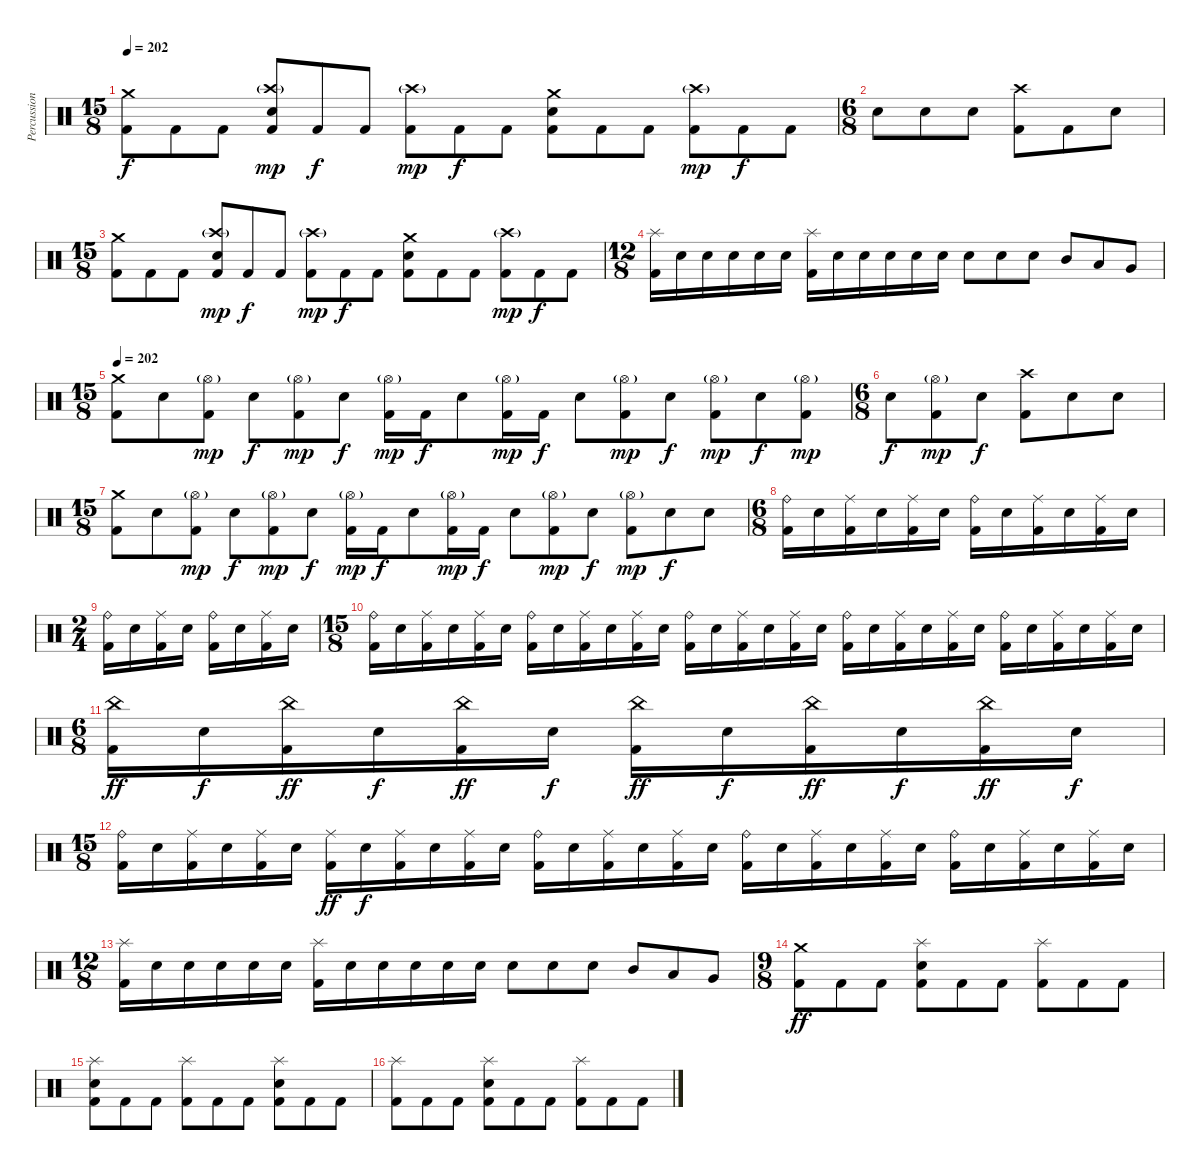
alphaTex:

\track ("Percussion" "Percussion") {instrument percussion}
\staff {score}
\articulation defaults
\ts (15 8)
\tempo 202
\clef neutral
\ks c
("Crash medium (hit)" "Kick (hit) 2").8{dy f} "Kick (hit) 2".8 "Kick (hit) 2".8 ("Crash high (hit)"{g} "Electric Snare (hit)" "Kick (hit) 2").8{dy mp} "Kick (hit) 2".8{dy f} "Kick (hit) 2".8 ("Crash high (hit)"{g} "Kick (hit) 2").8{dy mp} "Kick (hit) 2".8{dy f} "Kick (hit) 2".8 ("Crash medium (hit)" "Electric Snare (hit)" "Kick (hit) 2").8 "Kick (hit) 2".8 "Kick (hit) 2".8 ("Crash high (hit)"{g} "Kick (hit) 2").8{dy mp} "Kick (hit) 2".8{dy f} "Kick (hit) 2".8 |
\ts (6 8)
"Electric Snare (hit)".8 "Electric Snare (hit)".8 "Electric Snare (hit)".8 ("Crash high (hit)" "Kick (hit) 2").8 "Kick (hit) 2".8 "Electric Snare (hit)".8 |
\ts (15 8)
("Crash medium (hit)" "Kick (hit) 2").8 "Kick (hit) 2".8 "Kick (hit) 2".8 ("Crash high (hit)"{g} "Electric Snare (hit)" "Kick (hit) 2").8{dy mp} "Kick (hit) 2".8{dy f} "Kick (hit) 2".8 ("Crash high (hit)"{g} "Kick (hit) 2").8{dy mp} "Kick (hit) 2".8{dy f} "Kick (hit) 2".8 ("Crash medium (hit)" "Electric Snare (hit)" "Kick (hit) 2").8 "Kick (hit) 2".8 "Kick (hit) 2".8 ("Crash high (hit)"{g} "Kick (hit) 2").8{dy mp} "Kick (hit) 2".8{dy f} "Kick (hit) 2".8 |
\ts (12 8)
("Splash (hit)" "Kick (hit) 2").16 "Electric Snare (hit)".16 "Electric Snare (hit)".16 "Electric Snare (hit)".16 "Electric Snare (hit)".16 "Electric Snare (hit)".16 ("Splash (hit)" "Kick (hit) 2").16 "Electric Snare (hit)".16 "Electric Snare (hit)".16 "Electric Snare (hit)".16 "Electric Snare (hit)".16 "Electric Snare (hit)".16 "Electric Snare (hit)".8 "Electric Snare (hit)".8 "Electric Snare (hit)".8 "Mid Tom (hit)".8 "Low Tom (hit)".8 "Very Low Tom (hit)".8 |
\ts (15 8)
\tempo 202
("Crash medium (hit)" "Kick (hit) 2").8 "Electric Snare (hit)".8 ("Hi-Hat (open)"{g} "Kick (hit) 2").8{dy mp} "Electric Snare (hit)".8{dy f} ("Hi-Hat (open)"{g} "Kick (hit) 2").8{dy mp} "Electric Snare (hit)".8{dy f} ("Hi-Hat (open)"{g} "Kick (hit) 2").16{dy mp} "Kick (hit) 2".16{dy f} "Electric Snare (hit)".8 ("Hi-Hat (open)"{g} "Kick (hit) 2").16{dy mp} "Kick (hit) 2".16{dy f} "Electric Snare (hit)".8 ("Hi-Hat (open)"{g} "Kick (hit) 2").8{dy mp} "Electric Snare (hit)".8{dy f} ("Hi-Hat (open)"{g} "Kick (hit) 2").8{dy mp} "Electric Snare (hit)".8{dy f} ("Hi-Hat (open)"{g} "Kick (hit) 2").8{dy mp} |
\ts (6 8)
"Electric Snare (hit)".8{dy f} ("Hi-Hat (open)"{g} "Kick (hit) 2").8{dy mp} "Electric Snare (hit)".8{dy f} ("Crash high (hit)" "Kick (hit) 2").8 "Electric Snare (hit)".8 "Electric Snare (hit)".8 |
\ts (15 8)
("Crash medium (hit)" "Kick (hit) 2").8 "Electric Snare (hit)".8 ("Hi-Hat (open)"{g} "Kick (hit) 2").8{dy mp} "Electric Snare (hit)".8{dy f} ("Hi-Hat (open)"{g} "Kick (hit) 2").8{dy mp} "Electric Snare (hit)".8{dy f} ("Hi-Hat (open)"{g} "Kick (hit) 2").16{dy mp} "Kick (hit) 2".16{dy f} "Electric Snare (hit)".8 ("Hi-Hat (open)"{g} "Kick (hit) 2").16{dy mp} "Kick (hit) 2".16{dy f} "Electric Snare (hit)".8 ("Hi-Hat (open)"{g} "Kick (hit) 2").8{dy mp} "Electric Snare (hit)".8{dy f} ("Hi-Hat (open)"{g} "Kick (hit) 2").8{dy mp} "Electric Snare (hit)".8{dy f} "Electric Snare (hit)".8 |
\ts (6 8)
("Ride (bell)" "Kick (hit) 2").16 "Electric Snare (hit)".16 ("Ride (middle)" "Kick (hit) 2").16 "Electric Snare (hit)".16 ("Ride (middle)" "Kick (hit) 2").16 "Electric Snare (hit)".16 ("Ride (bell)" "Kick (hit) 2").16 "Electric Snare (hit)".16 ("Ride (middle)" "Kick (hit) 2").16 "Electric Snare (hit)".16 ("Ride (middle)" "Kick (hit) 2").16 "Electric Snare (hit)".16 |
\ts (2 4)
("Ride (bell)" "Kick (hit) 2").16 "Electric Snare (hit)".16 ("Ride (middle)" "Kick (hit) 2").16 "Electric Snare (hit)".16 ("Ride (bell)" "Kick (hit) 2").16 "Electric Snare (hit)".16 ("Ride (middle)" "Kick (hit) 2").16 "Electric Snare (hit)".16 |
\ts (15 8)
("Ride (bell)" "Kick (hit) 2").16 "Electric Snare (hit)".16 ("Ride (middle)" "Kick (hit) 2").16 "Electric Snare (hit)".16 ("Ride (middle)" "Kick (hit) 2").16 "Electric Snare (hit)".16 ("Ride (bell)" "Kick (hit) 2").16 "Electric Snare (hit)".16 ("Ride (middle)" "Kick (hit) 2").16 "Electric Snare (hit)".16 ("Ride (middle)" "Kick (hit) 2").16 "Electric Snare (hit)".16 ("Ride (bell)" "Kick (hit) 2").16 "Electric Snare (hit)".16 ("Ride (middle)" "Kick (hit) 2").16 "Electric Snare (hit)".16 ("Ride (middle)" "Kick (hit) 2").16 "Electric Snare (hit)".16 ("Ride (bell)" "Kick (hit) 2").16 "Electric Snare (hit)".16 ("Ride (middle)" "Kick (hit) 2").16 "Electric Snare (hit)".16 ("Ride (middle)" "Kick (hit) 2").16 "Electric Snare (hit)".16 ("Ride (bell)" "Kick (hit) 2").16 "Electric Snare (hit)".16 ("Ride (middle)" "Kick (hit) 2").16 "Electric Snare (hit)".16 ("Ride (middle)" "Kick (hit) 2").16 "Electric Snare (hit)".16 |
\ts (6 8)
("China (hit)" "Kick (hit) 2").16{dy ff} "Electric Snare (hit)".16{dy f} ("China (hit)" "Kick (hit) 2").16{dy ff} "Electric Snare (hit)".16{dy f} ("China (hit)" "Kick (hit) 2").16{dy ff} "Electric Snare (hit)".16{dy f} ("China (hit)" "Kick (hit) 2").16{dy ff} "Electric Snare (hit)".16{dy f} ("China (hit)" "Kick (hit) 2").16{dy ff} "Electric Snare (hit)".16{dy f} ("China (hit)" "Kick (hit) 2").16{dy ff} "Electric Snare (hit)".16{dy f} |
\ts (15 8)
("Ride (bell)" "Kick (hit) 2").16 "Electric Snare (hit)".16 ("Ride (middle)" "Kick (hit) 2").16 "Electric Snare (hit)".16 ("Ride (middle)" "Kick (hit) 2").16 "Electric Snare (hit)".16 ("Ride (middle)" "Kick (hit) 2").16{dy ff} "Electric Snare (hit)".16{dy f} ("Ride (middle)" "Kick (hit) 2").16 "Electric Snare (hit)".16 ("Ride (middle)" "Kick (hit) 2").16 "Electric Snare (hit)".16 ("Ride (bell)" "Kick (hit) 2").16 "Electric Snare (hit)".16 ("Ride (middle)" "Kick (hit) 2").16 "Electric Snare (hit)".16 ("Ride (middle)" "Kick (hit) 2").16 "Electric Snare (hit)".16 ("Ride (bell)" "Kick (hit) 2").16 "Electric Snare (hit)".16 ("Ride (middle)" "Kick (hit) 2").16 "Electric Snare (hit)".16 ("Ride (middle)" "Kick (hit) 2").16 "Electric Snare (hit)".16 ("Ride (bell)" "Kick (hit) 2").16 "Electric Snare (hit)".16 ("Ride (middle)" "Kick (hit) 2").16 "Electric Snare (hit)".16 ("Ride (middle)" "Kick (hit) 2").16 "Electric Snare (hit)".16 |
\ts (12 8)
("Splash (hit)" "Kick (hit) 2").16 "Electric Snare (hit)".16 "Electric Snare (hit)".16 "Electric Snare (hit)".16 "Electric Snare (hit)".16 "Electric Snare (hit)".16 ("Splash (hit)" "Kick (hit) 2").16 "Electric Snare (hit)".16 "Electric Snare (hit)".16 "Electric Snare (hit)".16 "Electric Snare (hit)".16 "Electric Snare (hit)".16 "Electric Snare (hit)".8 "Electric Snare (hit)".8 "Electric Snare (hit)".8 "Mid Tom (hit)".8 "Low Tom (hit)".8 "Very Low Tom (hit)".8 |
\ts (9 8)
("Crash medium (hit)" "Kick (hit) 2").8{dy ff} "Kick (hit) 2".8 "Kick (hit) 2".8 ("Splash (hit)" "Electric Snare (hit)" "Kick (hit) 2").8 "Kick (hit) 2".8 "Kick (hit) 2".8 ("Splash (hit)" "Kick (hit) 2").8 "Kick (hit) 2".8 "Kick (hit) 2".8 |
("Splash (hit)" "Electric Snare (hit)" "Kick (hit) 2").8 "Kick (hit) 2".8 "Kick (hit) 2".8 ("Splash (hit)" "Kick (hit) 2").8 "Kick (hit) 2".8 "Kick (hit) 2".8 ("Splash (hit)" "Electric Snare (hit)" "Kick (hit) 2").8 "Kick (hit) 2".8 "Kick (hit) 2".8 |
("Splash (hit)" "Kick (hit) 2").8 "Kick (hit) 2".8 "Kick (hit) 2".8 ("Splash (hit)" "Electric Snare (hit)" "Kick (hit) 2").8 "Kick (hit) 2".8 "Kick (hit) 2".8 ("Splash (hit)" "Kick (hit) 2").8 "Kick (hit) 2".8 "Kick (hit) 2".8
